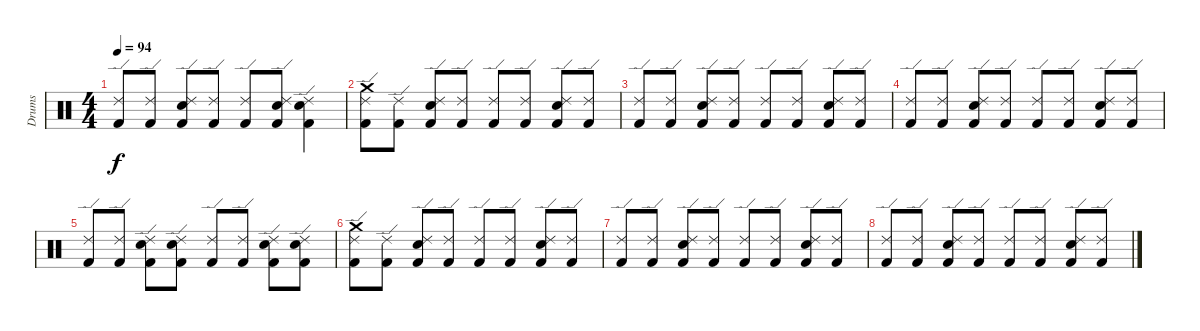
\track ("Drums" "Drums") {instrument percussion}
\staff {score}
\articulation defaults
\ts (4 4)
\tempo 94
\clef neutral
\ks c
("Ride (edge) 2" "Kick (hit) 2").8{dy f} ("Ride (edge) 2" "Kick (hit) 2").8 ("Ride (edge) 2" "Snare (hit) 2" "Kick (hit) 2").8 ("Ride (edge) 2" "Kick (hit) 2").8 ("Ride (edge) 2" "Kick (hit) 2").8 ("Ride (edge) 2" "Snare (hit) 2" "Kick (hit) 2").8 ("Ride (edge) 2" "Snare (hit) 2" "Kick (hit) 2").4 |
("Ride (edge) 2" "Crash medium (hit)" "Kick (hit) 2").8 ("Ride (edge) 2" "Kick (hit) 2").8 ("Ride (edge) 2" "Snare (hit) 2" "Kick (hit) 2").8 ("Ride (edge) 2" "Kick (hit) 2").8 ("Ride (edge) 2" "Kick (hit) 2").8 ("Ride (edge) 2" "Kick (hit) 2").8 ("Ride (edge) 2" "Snare (hit) 2" "Kick (hit) 2").8 ("Ride (edge) 2" "Kick (hit) 2").8 |
("Ride (edge) 2" "Kick (hit) 2").8 ("Ride (edge) 2" "Kick (hit) 2").8 ("Ride (edge) 2" "Snare (hit) 2" "Kick (hit) 2").8 ("Ride (edge) 2" "Kick (hit) 2").8 ("Ride (edge) 2" "Kick (hit) 2").8 ("Ride (edge) 2" "Kick (hit) 2").8 ("Ride (edge) 2" "Snare (hit) 2" "Kick (hit) 2").8 ("Ride (edge) 2" "Kick (hit) 2").8 |
("Ride (edge) 2" "Kick (hit) 2").8 ("Ride (edge) 2" "Kick (hit) 2").8 ("Ride (edge) 2" "Snare (hit) 2" "Kick (hit) 2").8 ("Ride (edge) 2" "Kick (hit) 2").8 ("Ride (edge) 2" "Kick (hit) 2").8 ("Ride (edge) 2" "Kick (hit) 2").8 ("Ride (edge) 2" "Snare (hit) 2" "Kick (hit) 2").8 ("Ride (edge) 2" "Kick (hit) 2").8 |
("Ride (edge) 2" "Kick (hit) 2").8 ("Ride (edge) 2" "Kick (hit) 2").8 ("Ride (edge) 2" "Snare (hit) 2" "Kick (hit) 2").8 ("Ride (edge) 2" "Snare (hit) 2" "Kick (hit) 2").8 ("Ride (edge) 2" "Kick (hit) 2").8 ("Ride (edge) 2" "Kick (hit) 2").8 ("Ride (edge) 2" "Snare (hit) 2" "Kick (hit) 2").8 ("Ride (edge) 2" "Snare (hit) 2" "Kick (hit) 2").8 |
("Ride (edge) 2" "Crash medium (hit)" "Kick (hit) 2").8 ("Ride (edge) 2" "Kick (hit) 2").8 ("Ride (edge) 2" "Snare (hit) 2" "Kick (hit) 2").8 ("Ride (edge) 2" "Kick (hit) 2").8 ("Ride (edge) 2" "Kick (hit) 2").8 ("Ride (edge) 2" "Kick (hit) 2").8 ("Ride (edge) 2" "Snare (hit) 2" "Kick (hit) 2").8 ("Ride (edge) 2" "Kick (hit) 2").8 |
("Ride (edge) 2" "Kick (hit) 2").8 ("Ride (edge) 2" "Kick (hit) 2").8 ("Ride (edge) 2" "Snare (hit) 2" "Kick (hit) 2").8 ("Ride (edge) 2" "Kick (hit) 2").8 ("Ride (edge) 2" "Kick (hit) 2").8 ("Ride (edge) 2" "Kick (hit) 2").8 ("Ride (edge) 2" "Snare (hit) 2" "Kick (hit) 2").8 ("Ride (edge) 2" "Kick (hit) 2").8 |
("Ride (edge) 2" "Kick (hit) 2").8 ("Ride (edge) 2" "Kick (hit) 2").8 ("Ride (edge) 2" "Snare (hit) 2" "Kick (hit) 2").8 ("Ride (edge) 2" "Kick (hit) 2").8 ("Ride (edge) 2" "Kick (hit) 2").8 ("Ride (edge) 2" "Kick (hit) 2").8 ("Ride (edge) 2" "Snare (hit) 2" "Kick (hit) 2").8 ("Ride (edge) 2" "Kick (hit) 2").8
